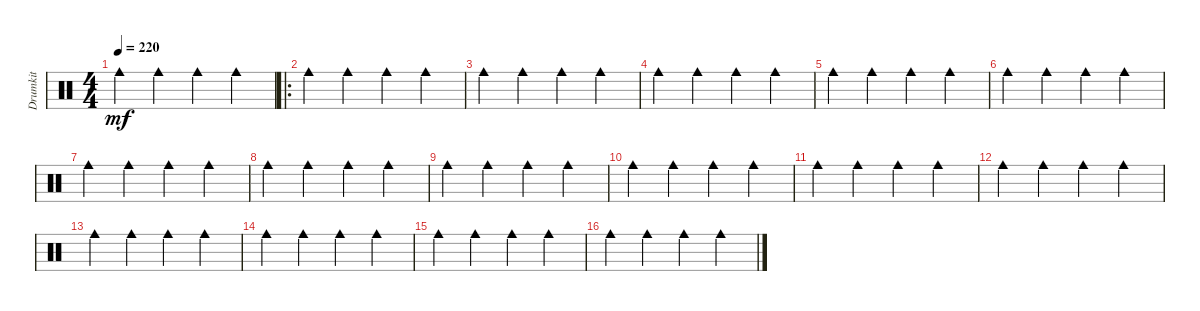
\track ("Drumkit" "Drumkit") {instrument percussion}
\staff {score}
\articulation defaults
\ts (4 4)
\section ("" "")
\tempo 220
\clef neutral
\ks c "Cowbell medium (hit)".4{dy mf} "Cowbell medium (hit)".4 "Cowbell medium (hit)".4 "Cowbell medium (hit)".4
|
\ro "Cowbell medium (hit)".4 "Cowbell medium (hit)".4 "Cowbell medium (hit)".4 "Cowbell medium (hit)".4
|
"Cowbell medium (hit)".4 "Cowbell medium (hit)".4 "Cowbell medium (hit)".4 "Cowbell medium (hit)".4 |
"Cowbell medium (hit)".4 "Cowbell medium (hit)".4 "Cowbell medium (hit)".4 "Cowbell medium (hit)".4 |
"Cowbell medium (hit)".4 "Cowbell medium (hit)".4 "Cowbell medium (hit)".4 "Cowbell medium (hit)".4 |
"Cowbell medium (hit)".4 "Cowbell medium (hit)".4 "Cowbell medium (hit)".4 "Cowbell medium (hit)".4 |
"Cowbell medium (hit)".4 "Cowbell medium (hit)".4 "Cowbell medium (hit)".4 "Cowbell medium (hit)".4 |
"Cowbell medium (hit)".4 "Cowbell medium (hit)".4 "Cowbell medium (hit)".4 "Cowbell medium (hit)".4 |
"Cowbell medium (hit)".4 "Cowbell medium (hit)".4 "Cowbell medium (hit)".4 "Cowbell medium (hit)".4 |
"Cowbell medium (hit)".4 "Cowbell medium (hit)".4 "Cowbell medium (hit)".4 "Cowbell medium (hit)".4 |
"Cowbell medium (hit)".4 "Cowbell medium (hit)".4 "Cowbell medium (hit)".4 "Cowbell medium (hit)".4 |
"Cowbell medium (hit)".4 "Cowbell medium (hit)".4 "Cowbell medium (hit)".4 "Cowbell medium (hit)".4 |
"Cowbell medium (hit)".4 "Cowbell medium (hit)".4 "Cowbell medium (hit)".4 "Cowbell medium (hit)".4 |
"Cowbell medium (hit)".4 "Cowbell medium (hit)".4 "Cowbell medium (hit)".4 "Cowbell medium (hit)".4 |
"Cowbell medium (hit)".4 "Cowbell medium (hit)".4 "Cowbell medium (hit)".4 "Cowbell medium (hit)".4 |
"Cowbell medium (hit)".4 "Cowbell medium (hit)".4 "Cowbell medium (hit)".4 "Cowbell medium (hit)".4
